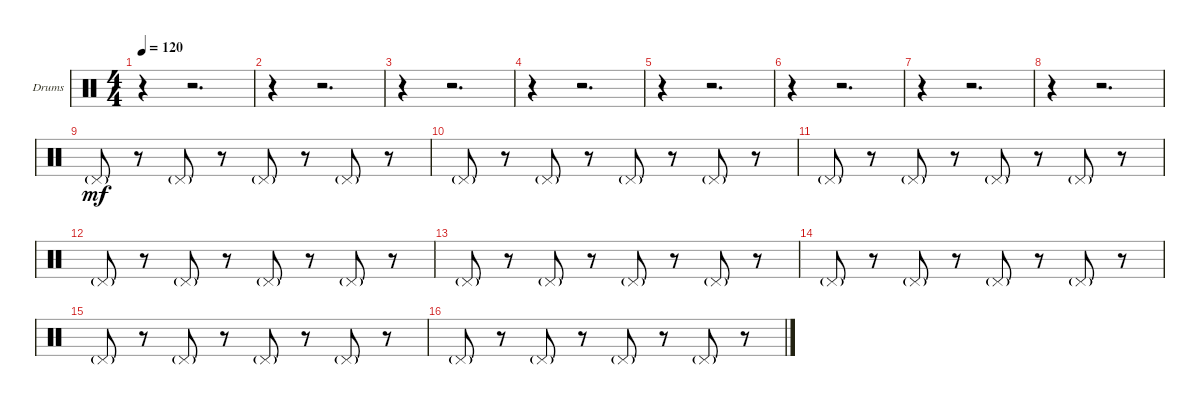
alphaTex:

\bracketExtendMode groupsimilarinstruments
\firstSystemTrackNameOrientation horizontal
\otherSystemsTrackNameOrientation horizontal
\track ("Drumkit" "Drums") {instrument percussion}
\staff {score}
\articulation defaults
\ts (4 4)
\tempo 120
\clef neutral
\ks c
r.4{dy mf} r.2{d} |
r.4 r.2{d} |
r.4 r.2{d} |
r.4 r.2{d} |
r.4 r.2{d} |
r.4 r.2{d} |
r.4 r.2{d} |
r.4 r.2{d} |
"Pedal Hi-Hat (hit)"{g}.8 r.8 "Pedal Hi-Hat (hit)"{g}.8 r.8 "Pedal Hi-Hat (hit)"{g}.8 r.8 "Pedal Hi-Hat (hit)"{g}.8 r.8 |
"Pedal Hi-Hat (hit)"{g}.8 r.8 "Pedal Hi-Hat (hit)"{g}.8 r.8 "Pedal Hi-Hat (hit)"{g}.8 r.8 "Pedal Hi-Hat (hit)"{g}.8 r.8 |
"Pedal Hi-Hat (hit)"{g}.8 r.8 "Pedal Hi-Hat (hit)"{g}.8 r.8 "Pedal Hi-Hat (hit)"{g}.8 r.8 "Pedal Hi-Hat (hit)"{g}.8 r.8 |
"Pedal Hi-Hat (hit)"{g}.8 r.8 "Pedal Hi-Hat (hit)"{g}.8 r.8 "Pedal Hi-Hat (hit)"{g}.8 r.8 "Pedal Hi-Hat (hit)"{g}.8 r.8 |
"Pedal Hi-Hat (hit)"{g}.8 r.8 "Pedal Hi-Hat (hit)"{g}.8 r.8 "Pedal Hi-Hat (hit)"{g}.8 r.8 "Pedal Hi-Hat (hit)"{g}.8 r.8 |
"Pedal Hi-Hat (hit)"{g}.8 r.8 "Pedal Hi-Hat (hit)"{g}.8 r.8 "Pedal Hi-Hat (hit)"{g}.8 r.8 "Pedal Hi-Hat (hit)"{g}.8 r.8 |
"Pedal Hi-Hat (hit)"{g}.8 r.8 "Pedal Hi-Hat (hit)"{g}.8 r.8 "Pedal Hi-Hat (hit)"{g}.8 r.8 "Pedal Hi-Hat (hit)"{g}.8 r.8 |
"Pedal Hi-Hat (hit)"{g}.8 r.8 "Pedal Hi-Hat (hit)"{g}.8 r.8 "Pedal Hi-Hat (hit)"{g}.8 r.8 "Pedal Hi-Hat (hit)"{g}.8 r.8
